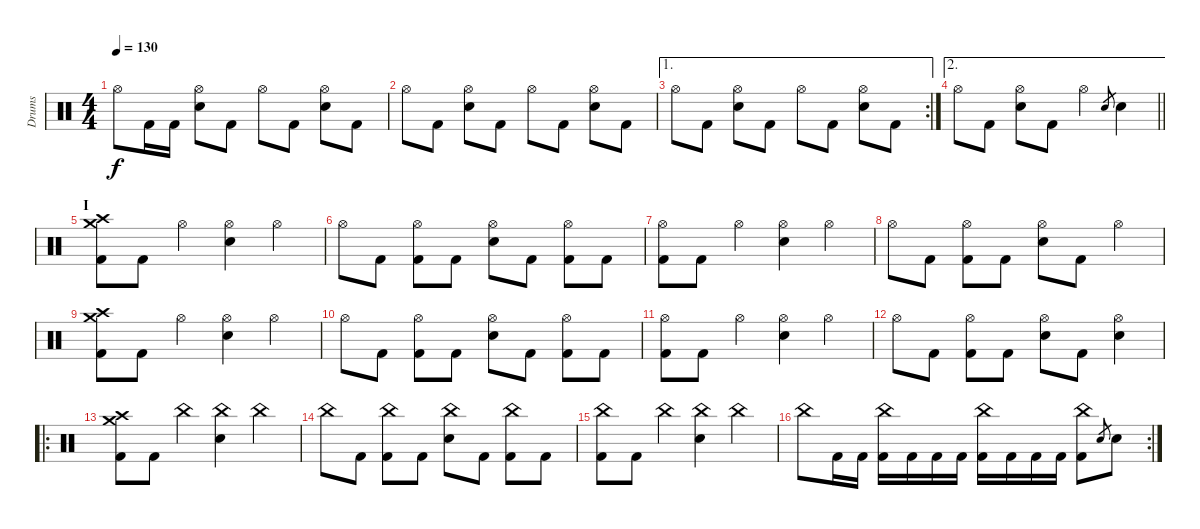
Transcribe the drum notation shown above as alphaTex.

\track ("Drums" "Drums") {instrument percussion}
\staff {score}
\articulation defaults
\ts (4 4)
\tempo 130
\clef neutral
\ks c "Hi-Hat (open)".8{dy f} "Kick (hit) 2".16 "Kick (hit) 2".16
("Hi-Hat (open)" "Electric Snare (hit)").8 "Kick (hit) 2".8 "Hi-Hat (open)".8 "Kick (hit) 2".8 ("Hi-Hat (open)" "Electric Snare (hit)").8 "Kick (hit) 2".8 |
"Hi-Hat (open)".8 "Kick (hit) 2".8 ("Hi-Hat (open)" "Electric Snare (hit)").8 "Kick (hit) 2".8 "Hi-Hat (open)".8 "Kick (hit) 2".8 ("Hi-Hat (open)" "Electric Snare (hit)").8 "Kick (hit) 2".8 |
\ae 1
\rc 2 "Hi-Hat (open)".8 "Kick (hit) 2".8
("Hi-Hat (open)" "Electric Snare (hit)").8 "Kick (hit) 2".8 "Hi-Hat (open)".8 "Kick (hit) 2".8 ("Hi-Hat (open)" "Electric Snare (hit)").8 "Kick (hit) 2".8 |
\ae 2
\barLineRight lightlight "Hi-Hat (open)".8 "Kick (hit) 2".8
("Hi-Hat (open)" "Electric Snare (hit)").8 "Kick (hit) 2".8 "Hi-Hat (open)".4 "Electric Snare (hit)".8{gr} "Electric Snare (hit)".4 |
\section ("" "I")
("Crash medium (hit)" "Crash high (hit)" "Kick (hit) 2").8 "Kick (hit) 2".8 "Hi-Hat (open)".4 ("Hi-Hat (open)" "Electric Snare (hit)").4 "Hi-Hat (open)".4 |
"Hi-Hat (open)".8 "Kick (hit) 2".8 ("Hi-Hat (open)" "Kick (hit) 2").8 "Kick (hit) 2".8 ("Hi-Hat (open)" "Electric Snare (hit)").8 "Kick (hit) 2".8 ("Hi-Hat (open)" "Kick (hit) 2").8 "Kick (hit) 2".8 |
("Hi-Hat (open)" "Kick (hit) 2").8 "Kick (hit) 2".8 "Hi-Hat (open)".4 ("Hi-Hat (open)" "Electric Snare (hit)").4 "Hi-Hat (open)".4 |
"Hi-Hat (open)".8 "Kick (hit) 2".8 ("Hi-Hat (open)" "Kick (hit) 2").8 "Kick (hit) 2".8 ("Hi-Hat (open)" "Electric Snare (hit)").8 "Kick (hit) 2".8 "Hi-Hat (open)".4 |
("Crash medium (hit)" "Crash high (hit)" "Kick (hit) 2").8 "Kick (hit) 2".8 "Hi-Hat (open)".4 ("Hi-Hat (open)" "Electric Snare (hit)").4 "Hi-Hat (open)".4 |
"Hi-Hat (open)".8 "Kick (hit) 2".8 ("Hi-Hat (open)" "Kick (hit) 2").8 "Kick (hit) 2".8 ("Hi-Hat (open)" "Electric Snare (hit)").8 "Kick (hit) 2".8 ("Hi-Hat (open)" "Kick (hit) 2").8 "Kick (hit) 2".8 |
("Hi-Hat (open)" "Kick (hit) 2").8 "Kick (hit) 2".8 "Hi-Hat (open)".4 ("Hi-Hat (open)" "Electric Snare (hit)").4 "Hi-Hat (open)".4 |
"Hi-Hat (open)".8 "Kick (hit) 2".8 ("Hi-Hat (open)" "Kick (hit) 2").8 "Kick (hit) 2".8 ("Hi-Hat (open)" "Electric Snare (hit)").8 "Kick (hit) 2".8 ("Hi-Hat (open)" "Electric Snare (hit)").4 |
\ro
("Crash medium (hit)" "Crash high (hit)" "Kick (hit) 2").8 "Kick (hit) 2".8 "China (hit)".4 ("China (hit)" "Electric Snare (hit)").4 "China (hit)".4 |
"China (hit)".8 "Kick (hit) 2".8 ("China (hit)" "Kick (hit) 2").8 "Kick (hit) 2".8 ("China (hit)" "Electric Snare (hit)").8 "Kick (hit) 2".8 ("China (hit)" "Kick (hit) 2").8 "Kick (hit) 2".8 |
("China (hit)" "Kick (hit) 2").8 "Kick (hit) 2".8 "China (hit)".4 ("China (hit)" "Electric Snare (hit)").4 "China (hit)".4 |
\rc 2 "China (hit)".8 "Kick (hit) 2".16 "Kick (hit) 2".16
("China (hit)" "Kick (hit) 2").16 "Kick (hit) 2".16 "Kick (hit) 2".16 "Kick (hit) 2".16 ("China (hit)" "Kick (hit) 2").16 "Kick (hit) 2".16 "Kick (hit) 2".16 "Kick (hit) 2".16 ("China (hit)" "Kick (hit) 2").8 "Electric Snare (hit)".8{gr} "Electric Snare (hit)".8
